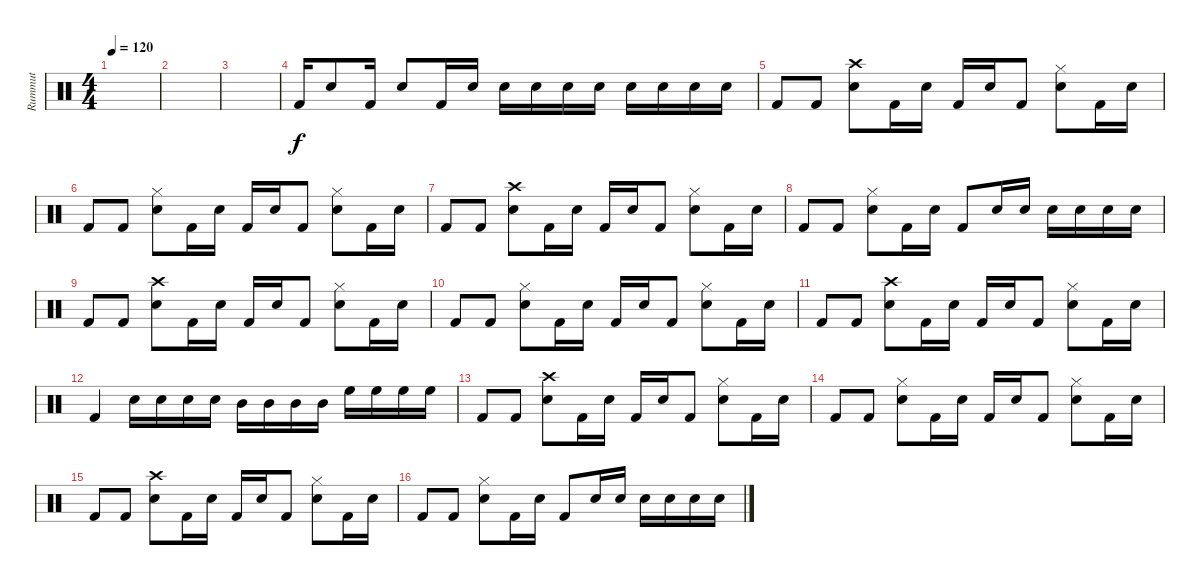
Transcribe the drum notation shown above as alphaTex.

\track ("Rummut" "Rummut") {instrument percussion}
\staff {score}
\articulation defaults
\ts (4 4)
\tempo 120
\clef neutral
\ks c
|
|
|
"Kick (hit) 2".16 "Snare (hit) 2".8 "Kick (hit) 2".16 "Snare (hit) 2".8 "Kick (hit) 2".16 "Snare (hit) 2".16 "Snare (hit) 2".16 "Snare (hit) 2".16 "Snare (hit) 2".16 "Snare (hit) 2".16 "Snare (hit) 2".16 "Snare (hit) 2".16 "Snare (hit) 2".16 "Snare (hit) 2".16 |
"Kick (hit) 2".8 "Kick (hit) 2".8 ("Crash high (hit)" "Snare (hit) 2").8 "Kick (hit) 2".16 "Snare (hit) 2".16 "Kick (hit) 2".16 "Snare (hit) 2".16 "Kick (hit) 2".8 ("Hi-Hat (closed)" "Snare (hit) 2").8 "Kick (hit) 2".16 "Snare (hit) 2".16 |
"Kick (hit) 2".8 "Kick (hit) 2".8 ("Hi-Hat (closed)" "Snare (hit) 2").8 "Kick (hit) 2".16 "Snare (hit) 2".16 "Kick (hit) 2".16 "Snare (hit) 2".16 "Kick (hit) 2".8 ("Hi-Hat (closed)" "Snare (hit) 2").8 "Kick (hit) 2".16 "Snare (hit) 2".16 |
"Kick (hit) 2".8 "Kick (hit) 2".8 ("Crash high (hit)" "Snare (hit) 2").8 "Kick (hit) 2".16 "Snare (hit) 2".16 "Kick (hit) 2".16 "Snare (hit) 2".16 "Kick (hit) 2".8 ("Hi-Hat (closed)" "Snare (hit) 2").8 "Kick (hit) 2".16 "Snare (hit) 2".16 |
"Kick (hit) 2".8 "Kick (hit) 2".8 ("Hi-Hat (closed)" "Snare (hit) 2").8 "Kick (hit) 2".16 "Snare (hit) 2".16 "Kick (hit) 2".8 "Snare (hit) 2".16 "Snare (hit) 2".16 "Snare (hit) 2".16 "Snare (hit) 2".16 "Snare (hit) 2".16 "Snare (hit) 2".16 |
"Kick (hit) 2".8 "Kick (hit) 2".8 ("Crash high (hit)" "Snare (hit) 2").8 "Kick (hit) 2".16 "Snare (hit) 2".16 "Kick (hit) 2".16 "Snare (hit) 2".16 "Kick (hit) 2".8 ("Hi-Hat (closed)" "Snare (hit) 2").8 "Kick (hit) 2".16 "Snare (hit) 2".16 |
"Kick (hit) 2".8 "Kick (hit) 2".8 ("Hi-Hat (closed)" "Snare (hit) 2").8 "Kick (hit) 2".16 "Snare (hit) 2".16 "Kick (hit) 2".16 "Snare (hit) 2".16 "Kick (hit) 2".8 ("Hi-Hat (closed)" "Snare (hit) 2").8 "Kick (hit) 2".16 "Snare (hit) 2".16 |
"Kick (hit) 2".8 "Kick (hit) 2".8 ("Crash high (hit)" "Snare (hit) 2").8 "Kick (hit) 2".16 "Snare (hit) 2".16 "Kick (hit) 2".16 "Snare (hit) 2".16 "Kick (hit) 2".8 ("Hi-Hat (closed)" "Snare (hit) 2").8 "Kick (hit) 2".16 "Snare (hit) 2".16 |
"Kick (hit) 2".4 "Snare (hit) 2".16 "Snare (hit) 2".16 "Snare (hit) 2".16 "Snare (hit) 2".16 "Mid Tom (hit)".16 "Mid Tom (hit)".16 "Mid Tom (hit)".16 "Mid Tom (hit)".16 "High Floor Tom (hit)".16 "High Floor Tom (hit)".16 "High Floor Tom (hit)".16 "High Floor Tom (hit)".16 |
"Kick (hit) 2".8 "Kick (hit) 2".8 ("Crash high (hit)" "Snare (hit) 2").8 "Kick (hit) 2".16 "Snare (hit) 2".16 "Kick (hit) 2".16 "Snare (hit) 2".16 "Kick (hit) 2".8 ("Hi-Hat (closed)" "Snare (hit) 2").8 "Kick (hit) 2".16 "Snare (hit) 2".16 |
"Kick (hit) 2".8 "Kick (hit) 2".8 ("Hi-Hat (closed)" "Snare (hit) 2").8 "Kick (hit) 2".16 "Snare (hit) 2".16 "Kick (hit) 2".16 "Snare (hit) 2".16 "Kick (hit) 2".8 ("Hi-Hat (closed)" "Snare (hit) 2").8 "Kick (hit) 2".16 "Snare (hit) 2".16 |
"Kick (hit) 2".8 "Kick (hit) 2".8 ("Crash high (hit)" "Snare (hit) 2").8 "Kick (hit) 2".16 "Snare (hit) 2".16 "Kick (hit) 2".16 "Snare (hit) 2".16 "Kick (hit) 2".8 ("Hi-Hat (closed)" "Snare (hit) 2").8 "Kick (hit) 2".16 "Snare (hit) 2".16 |
"Kick (hit) 2".8 "Kick (hit) 2".8 ("Hi-Hat (closed)" "Snare (hit) 2").8 "Kick (hit) 2".16 "Snare (hit) 2".16 "Kick (hit) 2".8 "Snare (hit) 2".16 "Snare (hit) 2".16 "Snare (hit) 2".16 "Snare (hit) 2".16 "Snare (hit) 2".16 "Snare (hit) 2".16
